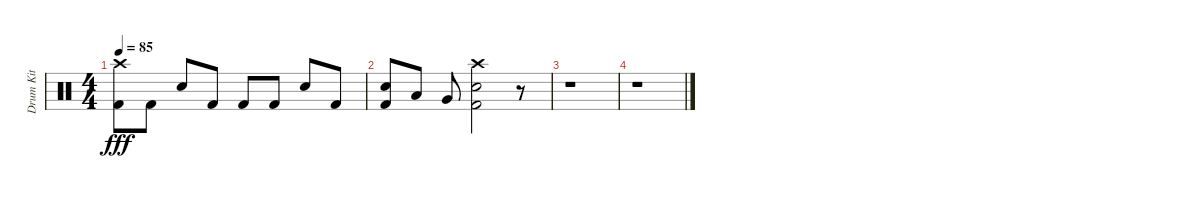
\track ("Drum Kit" "Drum Kit") {instrument percussion}
\staff {score}
\articulation defaults
\ts (4 4)
\tempo 85
\clef neutral
\ks c
("Crash high (hit)" "Kick (hit) 2").8{dy fff} "Kick (hit) 2".8 "Snare (hit) 2".8 "Kick (hit) 2".8 "Kick (hit) 2".8 "Kick (hit) 2".8 "Snare (hit) 2".8 "Kick (hit) 2".8 |
("Snare (hit) 2" "Kick (hit) 2").8 "Low Tom (hit)".8 "Very Low Tom (hit)".8 ("Crash high (hit)" "Snare (hit) 2" "Kick (hit) 2").2 r.8 |
r.1 |
r.1
